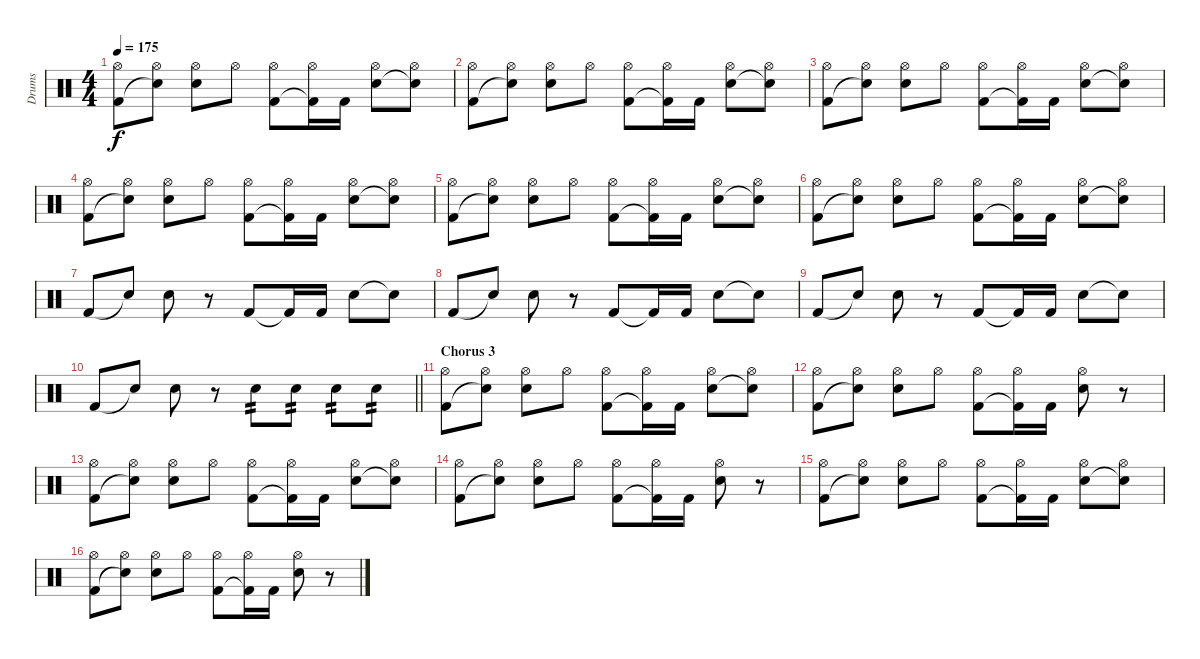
\track ("Drums" "Drums") {instrument percussion}
\staff {score}
\articulation defaults
\ts (4 4)
\tempo 175
\clef neutral
\ks c
("Hi-Hat (open)" "Kick (hit) 2").8{dy f} ("Hi-Hat (open)" "Snare (hit)"{t}).8 ("Hi-Hat (open)" "Electric Snare (hit)").8 "Hi-Hat (open)".8 ("Hi-Hat (open)" "Kick (hit) 2").8 ("Hi-Hat (open)" "Kick (hit) 2"{t}).16 "Kick (hit) 2".16 ("Hi-Hat (open)" "Electric Snare (hit)").8 ("Hi-Hat (open)" "Snare (hit)"{t}).8 |
("Hi-Hat (open)" "Kick (hit) 2").8 ("Hi-Hat (open)" "Snare (hit)"{t}).8 ("Hi-Hat (open)" "Electric Snare (hit)").8 "Hi-Hat (open)".8 ("Hi-Hat (open)" "Kick (hit) 2").8 ("Hi-Hat (open)" "Kick (hit) 2"{t}).16 "Kick (hit) 2".16 ("Hi-Hat (open)" "Electric Snare (hit)").8 ("Hi-Hat (open)" "Snare (hit)"{t}).8 |
("Hi-Hat (open)" "Kick (hit) 2").8 ("Hi-Hat (open)" "Snare (hit)"{t}).8 ("Hi-Hat (open)" "Electric Snare (hit)").8 "Hi-Hat (open)".8 ("Hi-Hat (open)" "Kick (hit) 2").8 ("Hi-Hat (open)" "Kick (hit) 2"{t}).16 "Kick (hit) 2".16 ("Hi-Hat (open)" "Electric Snare (hit)").8 ("Hi-Hat (open)" "Snare (hit)"{t}).8 |
("Hi-Hat (open)" "Kick (hit) 2").8 ("Hi-Hat (open)" "Snare (hit)"{t}).8 ("Hi-Hat (open)" "Electric Snare (hit)").8 "Hi-Hat (open)".8 ("Hi-Hat (open)" "Kick (hit) 2").8 ("Hi-Hat (open)" "Kick (hit) 2"{t}).16 "Kick (hit) 2".16 ("Hi-Hat (open)" "Electric Snare (hit)").8 ("Hi-Hat (open)" "Snare (hit)"{t}).8 |
("Hi-Hat (open)" "Kick (hit) 2").8 ("Hi-Hat (open)" "Snare (hit)"{t}).8 ("Hi-Hat (open)" "Electric Snare (hit)").8 "Hi-Hat (open)".8 ("Hi-Hat (open)" "Kick (hit) 2").8 ("Hi-Hat (open)" "Kick (hit) 2"{t}).16 "Kick (hit) 2".16 ("Hi-Hat (open)" "Electric Snare (hit)").8 ("Hi-Hat (open)" "Snare (hit)"{t}).8 |
("Hi-Hat (open)" "Kick (hit) 2").8 ("Hi-Hat (open)" "Snare (hit)"{t}).8 ("Hi-Hat (open)" "Electric Snare (hit)").8 "Hi-Hat (open)".8 ("Hi-Hat (open)" "Kick (hit) 2").8 ("Hi-Hat (open)" "Kick (hit) 2"{t}).16 "Kick (hit) 2".16 ("Hi-Hat (open)" "Electric Snare (hit)").8 ("Hi-Hat (open)" "Snare (hit)"{t}).8 |
"Kick (hit) 2".8 "Snare (hit)"{t}.8 "Electric Snare (hit)".8 r.8 "Kick (hit) 2".8 "Kick (hit) 2"{t}.16 "Kick (hit) 2".16 "Electric Snare (hit)".8 "Snare (hit)"{t}.8 |
"Kick (hit) 2".8 "Snare (hit)"{t}.8 "Electric Snare (hit)".8 r.8 "Kick (hit) 2".8 "Kick (hit) 2"{t}.16 "Kick (hit) 2".16 "Electric Snare (hit)".8 "Snare (hit)"{t}.8 |
"Kick (hit) 2".8 "Snare (hit)"{t}.8 "Electric Snare (hit)".8 r.8 "Kick (hit) 2".8 "Kick (hit) 2"{t}.16 "Kick (hit) 2".16 "Electric Snare (hit)".8 "Snare (hit)"{t}.8 |
\barLineRight lightlight "Kick (hit) 2".8 "Snare (hit)"{t}.8 "Electric Snare (hit)".8
r.8 "Electric Snare (hit)".8{tp 2} "Electric Snare (hit)".8{tp 2} "Electric Snare (hit)".8{tp 2} "Electric Snare (hit)".8{tp 2} |
\section ("" "Chorus 3")
("Hi-Hat (open)" "Kick (hit) 2").8 ("Hi-Hat (open)" "Snare (hit)"{t}).8 ("Hi-Hat (open)" "Electric Snare (hit)").8 "Hi-Hat (open)".8 ("Hi-Hat (open)" "Kick (hit) 2").8 ("Hi-Hat (open)" "Kick (hit) 2"{t}).16 "Kick (hit) 2".16 ("Hi-Hat (open)" "Electric Snare (hit)").8 ("Hi-Hat (open)" "Snare (hit)"{t}).8 |
("Hi-Hat (open)" "Kick (hit) 2").8 ("Hi-Hat (open)" "Snare (hit)"{t}).8 ("Hi-Hat (open)" "Electric Snare (hit)").8 "Hi-Hat (open)".8 ("Hi-Hat (open)" "Kick (hit) 2").8 ("Hi-Hat (open)" "Kick (hit) 2"{t}).16 "Kick (hit) 2".16 ("Hi-Hat (open)" "Electric Snare (hit)").8 r.8 |
("Hi-Hat (open)" "Kick (hit) 2").8 ("Hi-Hat (open)" "Snare (hit)"{t}).8 ("Hi-Hat (open)" "Electric Snare (hit)").8 "Hi-Hat (open)".8 ("Hi-Hat (open)" "Kick (hit) 2").8 ("Hi-Hat (open)" "Kick (hit) 2"{t}).16 "Kick (hit) 2".16 ("Hi-Hat (open)" "Electric Snare (hit)").8 ("Hi-Hat (open)" "Snare (hit)"{t}).8 |
("Hi-Hat (open)" "Kick (hit) 2").8 ("Hi-Hat (open)" "Snare (hit)"{t}).8 ("Hi-Hat (open)" "Electric Snare (hit)").8 "Hi-Hat (open)".8 ("Hi-Hat (open)" "Kick (hit) 2").8 ("Hi-Hat (open)" "Kick (hit) 2"{t}).16 "Kick (hit) 2".16 ("Hi-Hat (open)" "Electric Snare (hit)").8 r.8 |
("Hi-Hat (open)" "Kick (hit) 2").8 ("Hi-Hat (open)" "Snare (hit)"{t}).8 ("Hi-Hat (open)" "Electric Snare (hit)").8 "Hi-Hat (open)".8 ("Hi-Hat (open)" "Kick (hit) 2").8 ("Hi-Hat (open)" "Kick (hit) 2"{t}).16 "Kick (hit) 2".16 ("Hi-Hat (open)" "Electric Snare (hit)").8 ("Hi-Hat (open)" "Snare (hit)"{t}).8 |
("Hi-Hat (open)" "Kick (hit) 2").8 ("Hi-Hat (open)" "Snare (hit)"{t}).8 ("Hi-Hat (open)" "Electric Snare (hit)").8 "Hi-Hat (open)".8 ("Hi-Hat (open)" "Kick (hit) 2").8 ("Hi-Hat (open)" "Kick (hit) 2"{t}).16 "Kick (hit) 2".16 ("Hi-Hat (open)" "Electric Snare (hit)").8 r.8
